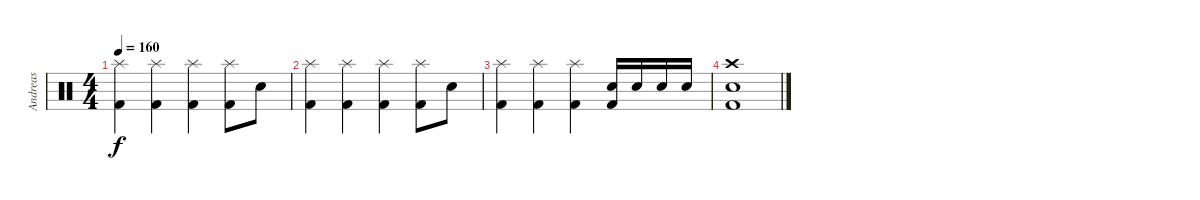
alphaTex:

\track ("Andreas" "Andreas") {instrument percussion}
\staff {score}
\articulation defaults
\ts (4 4)
\tempo 160
\clef neutral
\ks c
("Splash (hit)" "Kick (hit) 2").4{dy f} ("Splash (hit)" "Kick (hit) 2").4 ("Splash (hit)" "Kick (hit) 2").4 ("Splash (hit)" "Kick (hit) 2").8 "Snare (hit) 2".8 |
("Splash (hit)" "Kick (hit) 2").4 ("Splash (hit)" "Kick (hit) 2").4 ("Splash (hit)" "Kick (hit) 2").4 ("Splash (hit)" "Kick (hit) 2").8 "Snare (hit) 2".8 |
("Splash (hit)" "Kick (hit) 2").4 ("Splash (hit)" "Kick (hit) 2").4 ("Splash (hit)" "Kick (hit) 2").4 ("Snare (hit) 2" "Kick (hit) 2").16 "Snare (hit) 2".16 "Snare (hit) 2".16 "Snare (hit) 2".16 |
("Crash high (hit)" "Snare (hit) 2" "Kick (hit) 2").1
